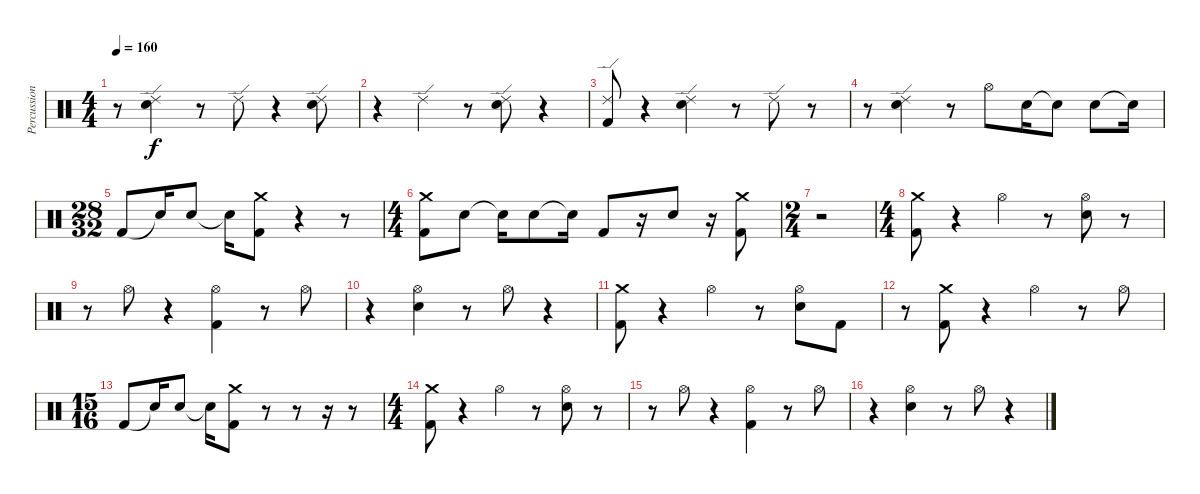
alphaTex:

\track ("Percussion" "Percussion") {instrument percussion}
\staff {score}
\articulation defaults
\ts (4 4)
\tempo 160
\clef neutral
\ks c
r.8{dy f} ("Ride (edge) 2" "Electric Snare (hit)").4 r.8 "Ride (edge) 2".8 r.4 ("Ride (edge) 2" "Electric Snare (hit)").8 |
r.4 "Ride (edge) 2".4 r.8 ("Ride (edge) 2" "Electric Snare (hit)").8 r.4 |
("Ride (edge) 2" "Kick (hit) 2").8 r.4 ("Ride (edge) 2" "Electric Snare (hit)").4 r.8 "Ride (edge) 2".8 r.8 |
r.8 ("Ride (edge) 2" "Electric Snare (hit)").4 r.8 "Hi-Hat (open)".8 "Electric Snare (hit)".16 "Electric Snare (hit)"{t}.8 "Electric Snare (hit)".8 "Snare (hit)"{t}.16 |
\ts (28 32)
"Kick (hit) 2".8 "Snare (hit)"{t}.16 "Electric Snare (hit)".8 "Snare (hit)"{t}.16 ("Crash medium (hit)" "Kick (hit) 2").8 r.4 r.8 |
\ts (4 4)
("Crash medium (hit)" "Kick (hit) 2").8 "Electric Snare (hit)".8 "Electric Snare (hit)"{t}.16 "Electric Snare (hit)".8 "Snare (hit)"{t}.16 "Kick (hit) 2".8 r.16 "Electric Snare (hit)".8 r.16 ("Crash medium (hit)" "Kick (hit) 2").8 |
\ts (2 4)
r.2 |
\ts (4 4)
("Crash medium (hit)" "Kick (hit) 2").8 r.4 "Hi-Hat (open)".4 r.8 ("Hi-Hat (open)" "Electric Snare (hit)").8 r.8 |
r.8 "Hi-Hat (open)".8 r.4 ("Hi-Hat (open)" "Kick (hit) 2").4 r.8 "Hi-Hat (open)".8 |
r.4 ("Hi-Hat (open)" "Electric Snare (hit)").4 r.8 "Hi-Hat (open)".8 r.4 |
("Crash medium (hit)" "Kick (hit) 2").8 r.4 "Hi-Hat (open)".4 r.8 ("Hi-Hat (open)" "Electric Snare (hit)").8 "Kick (hit) 2".8 |
r.8 ("Crash medium (hit)" "Kick (hit) 2").8 r.4 "Hi-Hat (open)".4 r.8 "Hi-Hat (open)".8 |
\ts (15 16)
"Kick (hit) 2".8 "Snare (hit)"{t}.16 "Electric Snare (hit)".8 "Snare (hit)"{t}.16 ("Crash medium (hit)" "Kick (hit) 2").8 r.8 r.8 r.16 r.8 |
\ts (4 4)
("Crash medium (hit)" "Kick (hit) 2").8 r.4 "Hi-Hat (open)".4 r.8 ("Hi-Hat (open)" "Electric Snare (hit)").8 r.8 |
r.8 "Hi-Hat (open)".8 r.4 ("Hi-Hat (open)" "Kick (hit) 2").4 r.8 "Hi-Hat (open)".8 |
r.4 ("Hi-Hat (open)" "Electric Snare (hit)").4 r.8 "Hi-Hat (open)".8 r.4
